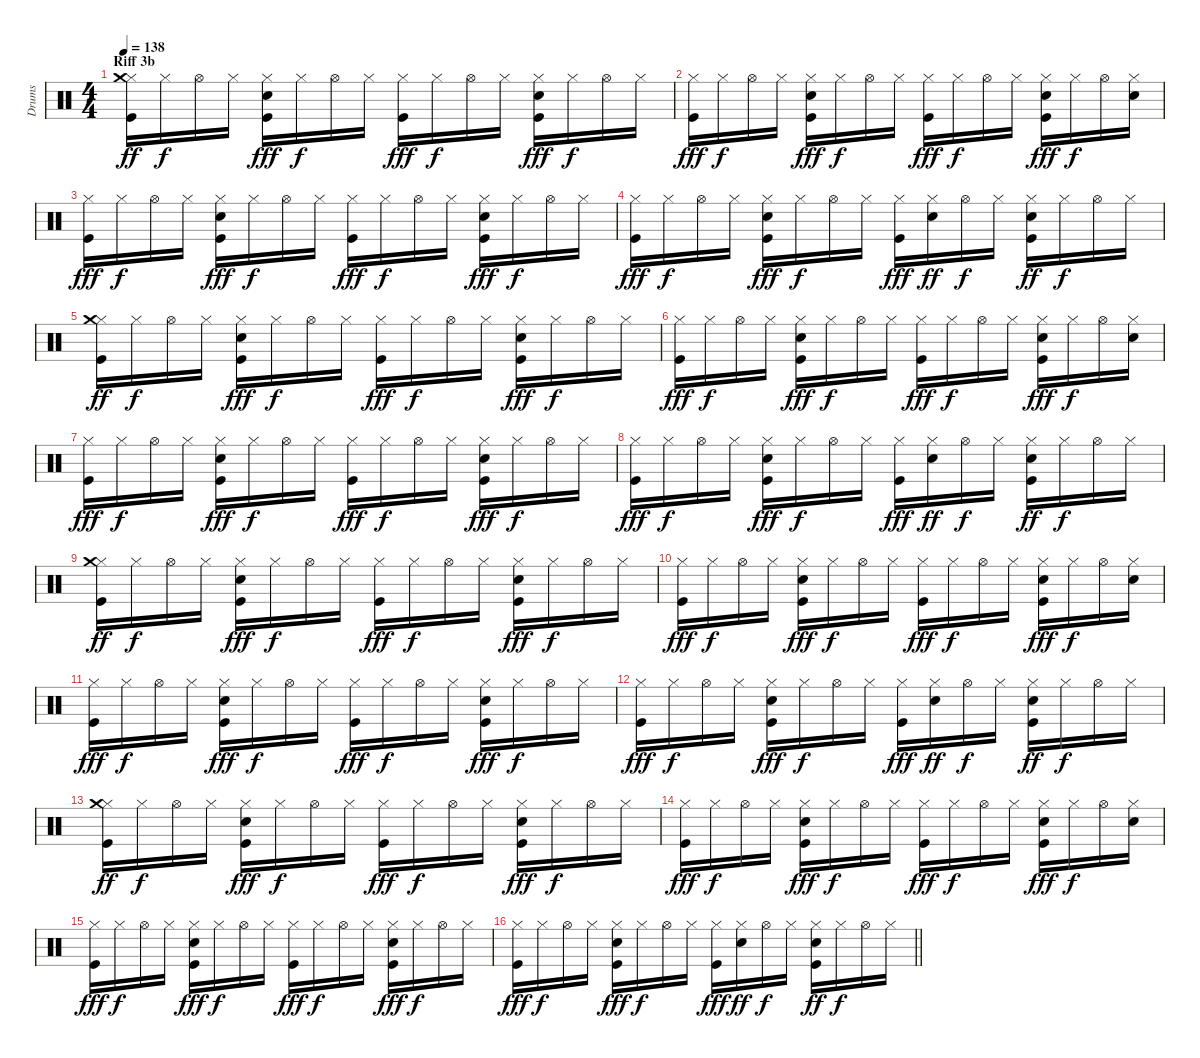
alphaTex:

\track ("Drums" "Drums") {instrument percussion}
\staff {score}
\articulation defaults
\ts (4 4)
\section ("" "Riff 3b")
\tempo 138
\clef neutral
\ks c
("Kick (hit)" "Hi-Hat (closed)" "Crash medium (hit)").16{dy ff} "Hi-Hat (closed)".16{dy f} "Hi-Hat (open)".16 "Hi-Hat (closed)".16 ("Kick (hit)" "Electric Snare (hit)" "Hi-Hat (closed)").16{dy fff} "Hi-Hat (closed)".16{dy f} "Hi-Hat (open)".16 "Hi-Hat (closed)".16 ("Kick (hit)" "Hi-Hat (closed)").16{dy fff} "Hi-Hat (closed)".16{dy f} "Hi-Hat (open)".16 "Hi-Hat (closed)".16 ("Kick (hit)" "Electric Snare (hit)" "Hi-Hat (closed)").16{dy fff} "Hi-Hat (closed)".16{dy f} "Hi-Hat (open)".16 "Hi-Hat (closed)".16 |
("Kick (hit)" "Hi-Hat (closed)").16{dy fff} "Hi-Hat (closed)".16{dy f} "Hi-Hat (open)".16 "Hi-Hat (closed)".16 ("Kick (hit)" "Electric Snare (hit)" "Hi-Hat (closed)").16{dy fff} "Hi-Hat (closed)".16{dy f} "Hi-Hat (open)".16 "Hi-Hat (closed)".16 ("Kick (hit)" "Hi-Hat (closed)").16{dy fff} "Hi-Hat (closed)".16{dy f} "Hi-Hat (open)".16 "Hi-Hat (closed)".16 ("Kick (hit)" "Electric Snare (hit)" "Hi-Hat (closed)").16{dy fff} "Hi-Hat (closed)".16{dy f} "Hi-Hat (open)".16 ("Electric Snare (hit)" "Hi-Hat (closed)").16 |
("Kick (hit)" "Hi-Hat (closed)").16{dy fff} "Hi-Hat (closed)".16{dy f} "Hi-Hat (open)".16 "Hi-Hat (closed)".16 ("Kick (hit)" "Electric Snare (hit)" "Hi-Hat (closed)").16{dy fff} "Hi-Hat (closed)".16{dy f} "Hi-Hat (open)".16 "Hi-Hat (closed)".16 ("Kick (hit)" "Hi-Hat (closed)").16{dy fff} "Hi-Hat (closed)".16{dy f} "Hi-Hat (open)".16 "Hi-Hat (closed)".16 ("Kick (hit)" "Electric Snare (hit)" "Hi-Hat (closed)").16{dy fff} "Hi-Hat (closed)".16{dy f} "Hi-Hat (open)".16 "Hi-Hat (closed)".16 |
("Kick (hit)" "Hi-Hat (closed)").16{dy fff} "Hi-Hat (closed)".16{dy f} "Hi-Hat (open)".16 "Hi-Hat (closed)".16 ("Kick (hit)" "Electric Snare (hit)" "Hi-Hat (closed)").16{dy fff} "Hi-Hat (closed)".16{dy f} "Hi-Hat (open)".16 "Hi-Hat (closed)".16 ("Kick (hit)" "Hi-Hat (closed)").16{dy fff} ("Electric Snare (hit)" "Hi-Hat (closed)").16{dy ff} "Hi-Hat (open)".16{dy f} "Hi-Hat (closed)".16 ("Kick (hit)" "Electric Snare (hit)" "Hi-Hat (closed)").16{dy ff} "Hi-Hat (closed)".16{dy f} "Hi-Hat (open)".16 "Hi-Hat (closed)".16 |
("Kick (hit)" "Hi-Hat (closed)" "Crash medium (hit)").16{dy ff} "Hi-Hat (closed)".16{dy f} "Hi-Hat (open)".16 "Hi-Hat (closed)".16 ("Kick (hit)" "Electric Snare (hit)" "Hi-Hat (closed)").16{dy fff} "Hi-Hat (closed)".16{dy f} "Hi-Hat (open)".16 "Hi-Hat (closed)".16 ("Kick (hit)" "Hi-Hat (closed)").16{dy fff} "Hi-Hat (closed)".16{dy f} "Hi-Hat (open)".16 "Hi-Hat (closed)".16 ("Kick (hit)" "Electric Snare (hit)" "Hi-Hat (closed)").16{dy fff} "Hi-Hat (closed)".16{dy f} "Hi-Hat (open)".16 "Hi-Hat (closed)".16 |
("Kick (hit)" "Hi-Hat (closed)").16{dy fff} "Hi-Hat (closed)".16{dy f} "Hi-Hat (open)".16 "Hi-Hat (closed)".16 ("Kick (hit)" "Electric Snare (hit)" "Hi-Hat (closed)").16{dy fff} "Hi-Hat (closed)".16{dy f} "Hi-Hat (open)".16 "Hi-Hat (closed)".16 ("Kick (hit)" "Hi-Hat (closed)").16{dy fff} "Hi-Hat (closed)".16{dy f} "Hi-Hat (open)".16 "Hi-Hat (closed)".16 ("Kick (hit)" "Electric Snare (hit)" "Hi-Hat (closed)").16{dy fff} "Hi-Hat (closed)".16{dy f} "Hi-Hat (open)".16 ("Electric Snare (hit)" "Hi-Hat (closed)").16 |
("Kick (hit)" "Hi-Hat (closed)").16{dy fff} "Hi-Hat (closed)".16{dy f} "Hi-Hat (open)".16 "Hi-Hat (closed)".16 ("Kick (hit)" "Electric Snare (hit)" "Hi-Hat (closed)").16{dy fff} "Hi-Hat (closed)".16{dy f} "Hi-Hat (open)".16 "Hi-Hat (closed)".16 ("Kick (hit)" "Hi-Hat (closed)").16{dy fff} "Hi-Hat (closed)".16{dy f} "Hi-Hat (open)".16 "Hi-Hat (closed)".16 ("Kick (hit)" "Electric Snare (hit)" "Hi-Hat (closed)").16{dy fff} "Hi-Hat (closed)".16{dy f} "Hi-Hat (open)".16 "Hi-Hat (closed)".16 |
("Kick (hit)" "Hi-Hat (closed)").16{dy fff} "Hi-Hat (closed)".16{dy f} "Hi-Hat (open)".16 "Hi-Hat (closed)".16 ("Kick (hit)" "Electric Snare (hit)" "Hi-Hat (closed)").16{dy fff} "Hi-Hat (closed)".16{dy f} "Hi-Hat (open)".16 "Hi-Hat (closed)".16 ("Kick (hit)" "Hi-Hat (closed)").16{dy fff} ("Electric Snare (hit)" "Hi-Hat (closed)").16{dy ff} "Hi-Hat (open)".16{dy f} "Hi-Hat (closed)".16 ("Kick (hit)" "Electric Snare (hit)" "Hi-Hat (closed)").16{dy ff} "Hi-Hat (closed)".16{dy f} "Hi-Hat (open)".16 "Hi-Hat (closed)".16 |
("Kick (hit)" "Hi-Hat (closed)" "Crash medium (hit)").16{dy ff} "Hi-Hat (closed)".16{dy f} "Hi-Hat (open)".16 "Hi-Hat (closed)".16 ("Kick (hit)" "Electric Snare (hit)" "Hi-Hat (closed)").16{dy fff} "Hi-Hat (closed)".16{dy f} "Hi-Hat (open)".16 "Hi-Hat (closed)".16 ("Kick (hit)" "Hi-Hat (closed)").16{dy fff} "Hi-Hat (closed)".16{dy f} "Hi-Hat (open)".16 "Hi-Hat (closed)".16 ("Kick (hit)" "Electric Snare (hit)" "Hi-Hat (closed)").16{dy fff} "Hi-Hat (closed)".16{dy f} "Hi-Hat (open)".16 "Hi-Hat (closed)".16 |
("Kick (hit)" "Hi-Hat (closed)").16{dy fff} "Hi-Hat (closed)".16{dy f} "Hi-Hat (open)".16 "Hi-Hat (closed)".16 ("Kick (hit)" "Electric Snare (hit)" "Hi-Hat (closed)").16{dy fff} "Hi-Hat (closed)".16{dy f} "Hi-Hat (open)".16 "Hi-Hat (closed)".16 ("Kick (hit)" "Hi-Hat (closed)").16{dy fff} "Hi-Hat (closed)".16{dy f} "Hi-Hat (open)".16 "Hi-Hat (closed)".16 ("Kick (hit)" "Electric Snare (hit)" "Hi-Hat (closed)").16{dy fff} "Hi-Hat (closed)".16{dy f} "Hi-Hat (open)".16 ("Electric Snare (hit)" "Hi-Hat (closed)").16 |
("Kick (hit)" "Hi-Hat (closed)").16{dy fff} "Hi-Hat (closed)".16{dy f} "Hi-Hat (open)".16 "Hi-Hat (closed)".16 ("Kick (hit)" "Electric Snare (hit)" "Hi-Hat (closed)").16{dy fff} "Hi-Hat (closed)".16{dy f} "Hi-Hat (open)".16 "Hi-Hat (closed)".16 ("Kick (hit)" "Hi-Hat (closed)").16{dy fff} "Hi-Hat (closed)".16{dy f} "Hi-Hat (open)".16 "Hi-Hat (closed)".16 ("Kick (hit)" "Electric Snare (hit)" "Hi-Hat (closed)").16{dy fff} "Hi-Hat (closed)".16{dy f} "Hi-Hat (open)".16 "Hi-Hat (closed)".16 |
("Kick (hit)" "Hi-Hat (closed)").16{dy fff} "Hi-Hat (closed)".16{dy f} "Hi-Hat (open)".16 "Hi-Hat (closed)".16 ("Kick (hit)" "Electric Snare (hit)" "Hi-Hat (closed)").16{dy fff} "Hi-Hat (closed)".16{dy f} "Hi-Hat (open)".16 "Hi-Hat (closed)".16 ("Kick (hit)" "Hi-Hat (closed)").16{dy fff} ("Electric Snare (hit)" "Hi-Hat (closed)").16{dy ff} "Hi-Hat (open)".16{dy f} "Hi-Hat (closed)".16 ("Kick (hit)" "Electric Snare (hit)" "Hi-Hat (closed)").16{dy ff} "Hi-Hat (closed)".16{dy f} "Hi-Hat (open)".16 "Hi-Hat (closed)".16 |
("Kick (hit)" "Hi-Hat (closed)" "Crash medium (hit)").16{dy ff} "Hi-Hat (closed)".16{dy f} "Hi-Hat (open)".16 "Hi-Hat (closed)".16 ("Kick (hit)" "Electric Snare (hit)" "Hi-Hat (closed)").16{dy fff} "Hi-Hat (closed)".16{dy f} "Hi-Hat (open)".16 "Hi-Hat (closed)".16 ("Kick (hit)" "Hi-Hat (closed)").16{dy fff} "Hi-Hat (closed)".16{dy f} "Hi-Hat (open)".16 "Hi-Hat (closed)".16 ("Kick (hit)" "Electric Snare (hit)" "Hi-Hat (closed)").16{dy fff} "Hi-Hat (closed)".16{dy f} "Hi-Hat (open)".16 "Hi-Hat (closed)".16 |
("Kick (hit)" "Hi-Hat (closed)").16{dy fff} "Hi-Hat (closed)".16{dy f} "Hi-Hat (open)".16 "Hi-Hat (closed)".16 ("Kick (hit)" "Electric Snare (hit)" "Hi-Hat (closed)").16{dy fff} "Hi-Hat (closed)".16{dy f} "Hi-Hat (open)".16 "Hi-Hat (closed)".16 ("Kick (hit)" "Hi-Hat (closed)").16{dy fff} "Hi-Hat (closed)".16{dy f} "Hi-Hat (open)".16 "Hi-Hat (closed)".16 ("Kick (hit)" "Electric Snare (hit)" "Hi-Hat (closed)").16{dy fff} "Hi-Hat (closed)".16{dy f} "Hi-Hat (open)".16 ("Electric Snare (hit)" "Hi-Hat (closed)").16 |
("Kick (hit)" "Hi-Hat (closed)").16{dy fff} "Hi-Hat (closed)".16{dy f} "Hi-Hat (open)".16 "Hi-Hat (closed)".16 ("Kick (hit)" "Electric Snare (hit)" "Hi-Hat (closed)").16{dy fff} "Hi-Hat (closed)".16{dy f} "Hi-Hat (open)".16 "Hi-Hat (closed)".16 ("Kick (hit)" "Hi-Hat (closed)").16{dy fff} "Hi-Hat (closed)".16{dy f} "Hi-Hat (open)".16 "Hi-Hat (closed)".16 ("Kick (hit)" "Electric Snare (hit)" "Hi-Hat (closed)").16{dy fff} "Hi-Hat (closed)".16{dy f} "Hi-Hat (open)".16 "Hi-Hat (closed)".16 |
\barLineRight lightlight
("Kick (hit)" "Hi-Hat (closed)").16{dy fff} "Hi-Hat (closed)".16{dy f} "Hi-Hat (open)".16 "Hi-Hat (closed)".16 ("Kick (hit)" "Electric Snare (hit)" "Hi-Hat (closed)").16{dy fff} "Hi-Hat (closed)".16{dy f} "Hi-Hat (open)".16 "Hi-Hat (closed)".16 ("Kick (hit)" "Hi-Hat (closed)").16{dy fff} ("Electric Snare (hit)" "Hi-Hat (closed)").16{dy ff} "Hi-Hat (open)".16{dy f} "Hi-Hat (closed)".16 ("Kick (hit)" "Electric Snare (hit)" "Hi-Hat (closed)").16{dy ff} "Hi-Hat (closed)".16{dy f} "Hi-Hat (open)".16 "Hi-Hat (closed)".16
